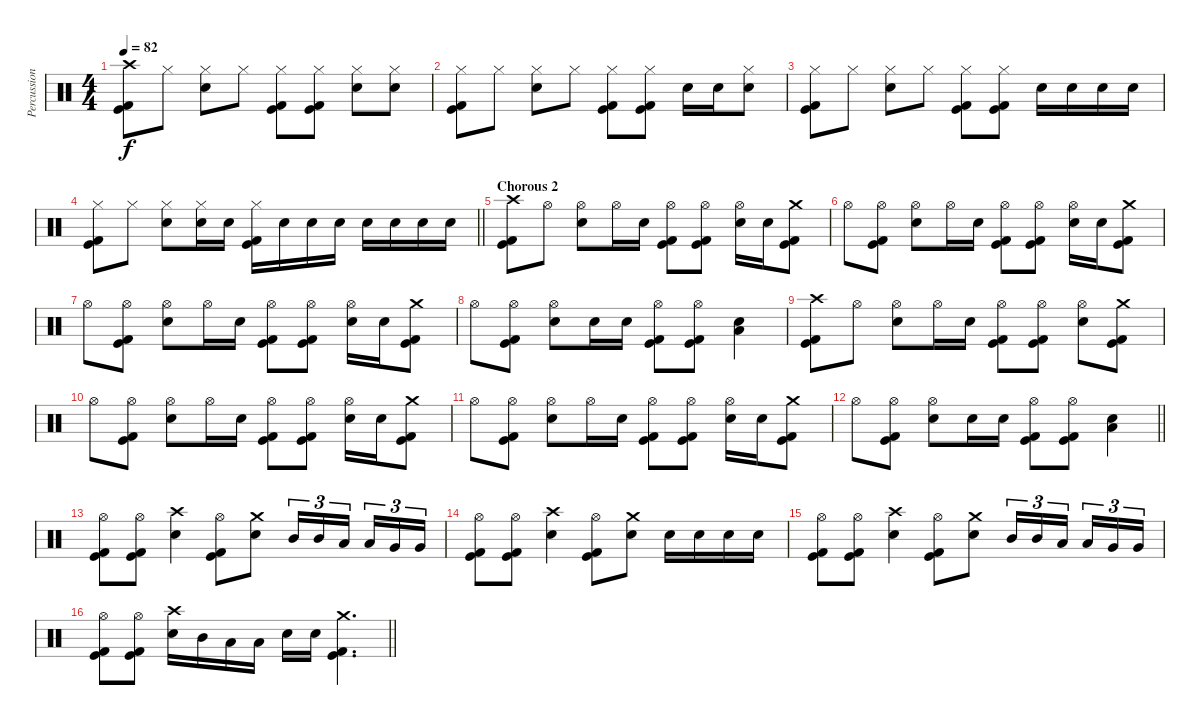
\track ("Percussion" "Percussion") {instrument percussion}
\staff {score}
\articulation defaults
\ts (4 4)
\section ("" "")
\tempo 82
\clef neutral
\ks c
("Crash high (hit)" "Kick (hit)" "Kick (hit) 2").8{dy f} "Hi-Hat (closed)".8 ("Hi-Hat (closed)" "Electric Snare (hit)").8 "Hi-Hat (closed)".8 ("Hi-Hat (closed)" "Kick (hit)" "Kick (hit) 2").8 ("Hi-Hat (closed)" "Kick (hit)" "Kick (hit) 2").8 ("Hi-Hat (closed)" "Electric Snare (hit)").8 ("Hi-Hat (closed)" "Electric Snare (hit)").8 |
("Hi-Hat (closed)" "Kick (hit)" "Kick (hit) 2").8 "Hi-Hat (closed)".8 ("Hi-Hat (closed)" "Electric Snare (hit)").8 "Hi-Hat (closed)".8 ("Hi-Hat (closed)" "Kick (hit)" "Kick (hit) 2").8 ("Hi-Hat (closed)" "Kick (hit)" "Kick (hit) 2").8 "Electric Snare (hit)".16 "Electric Snare (hit)".16 ("Hi-Hat (closed)" "Electric Snare (hit)").8 |
("Hi-Hat (closed)" "Kick (hit)" "Kick (hit) 2").8 "Hi-Hat (closed)".8 ("Hi-Hat (closed)" "Electric Snare (hit)").8 "Hi-Hat (closed)".8 ("Hi-Hat (closed)" "Kick (hit)" "Kick (hit) 2").8 ("Hi-Hat (closed)" "Kick (hit)" "Kick (hit) 2").8 "Electric Snare (hit)".16 "Electric Snare (hit)".16 "Electric Snare (hit)".16 "Electric Snare (hit)".16 |
\barLineRight lightlight
("Hi-Hat (closed)" "Kick (hit)" "Kick (hit) 2").8 "Hi-Hat (closed)".8 ("Hi-Hat (closed)" "Electric Snare (hit)").8 ("Hi-Hat (closed)" "Electric Snare (hit)").16 "Electric Snare (hit)".16 ("Hi-Hat (closed)" "Kick (hit)" "Kick (hit) 2").16 "Electric Snare (hit)".16 "Electric Snare (hit)".16 "Electric Snare (hit)".16 "Electric Snare (hit)".16 "Electric Snare (hit)".16 "Electric Snare (hit)".16 "Electric Snare (hit)".16 |
\section ("" "Chorous 2")
("Crash high (hit)" "Kick (hit)" "Kick (hit) 2").8 "Hi-Hat (open)".8 ("Hi-Hat (open)" "Electric Snare (hit)").8 "Hi-Hat (open)".16 "Electric Snare (hit)".16 ("Hi-Hat (open)" "Kick (hit)" "Kick (hit) 2").8 ("Hi-Hat (open)" "Kick (hit)" "Kick (hit) 2").8 ("Hi-Hat (open)" "Electric Snare (hit)").16 "Electric Snare (hit)".16 ("Crash medium (hit)" "Kick (hit)" "Kick (hit) 2").8 |
"Hi-Hat (open)".8 ("Hi-Hat (open)" "Kick (hit)" "Kick (hit) 2").8 ("Hi-Hat (open)" "Electric Snare (hit)").8 "Hi-Hat (open)".16 "Electric Snare (hit)".16 ("Hi-Hat (open)" "Kick (hit)" "Kick (hit) 2").8 ("Hi-Hat (open)" "Kick (hit)" "Kick (hit) 2").8 ("Hi-Hat (open)" "Electric Snare (hit)").16 "Electric Snare (hit)".16 ("Crash medium (hit)" "Kick (hit)" "Kick (hit) 2").8 |
"Hi-Hat (open)".8 ("Hi-Hat (open)" "Kick (hit)" "Kick (hit) 2").8 ("Hi-Hat (open)" "Electric Snare (hit)").8 "Hi-Hat (open)".16 "Electric Snare (hit)".16 ("Hi-Hat (open)" "Kick (hit)" "Kick (hit) 2").8 ("Hi-Hat (open)" "Kick (hit)" "Kick (hit) 2").8 ("Hi-Hat (open)" "Electric Snare (hit)").16 "Electric Snare (hit)".16 ("Crash medium (hit)" "Kick (hit)" "Kick (hit) 2").8 |
"Hi-Hat (open)".8 ("Hi-Hat (open)" "Kick (hit)" "Kick (hit) 2").8 ("Hi-Hat (open)" "Electric Snare (hit)").8 "Electric Snare (hit)".16 "Electric Snare (hit)".16 ("Hi-Hat (open)" "Kick (hit)" "Kick (hit) 2").8 ("Hi-Hat (open)" "Kick (hit)" "Kick (hit) 2").8 ("Electric Snare (hit)" "Low Floor Tom (hit)").4 |
("Crash high (hit)" "Kick (hit)" "Kick (hit) 2").8 "Hi-Hat (open)".8 ("Hi-Hat (open)" "Electric Snare (hit)").8 "Hi-Hat (open)".16 "Electric Snare (hit)".16 ("Hi-Hat (open)" "Kick (hit)" "Kick (hit) 2").8 ("Hi-Hat (open)" "Kick (hit)" "Kick (hit) 2").8 ("Hi-Hat (open)" "Electric Snare (hit)").8 ("Crash medium (hit)" "Kick (hit)" "Kick (hit) 2").8 |
"Hi-Hat (open)".8 ("Hi-Hat (open)" "Kick (hit)" "Kick (hit) 2").8 ("Hi-Hat (open)" "Electric Snare (hit)").8 "Hi-Hat (open)".16 "Electric Snare (hit)".16 ("Hi-Hat (open)" "Kick (hit)" "Kick (hit) 2").8 ("Hi-Hat (open)" "Kick (hit)" "Kick (hit) 2").8 ("Hi-Hat (open)" "Electric Snare (hit)").16 "Electric Snare (hit)".16 ("Crash medium (hit)" "Kick (hit)" "Kick (hit) 2").8 |
"Hi-Hat (open)".8 ("Hi-Hat (open)" "Kick (hit)" "Kick (hit) 2").8 ("Hi-Hat (open)" "Electric Snare (hit)").8 "Hi-Hat (open)".16 "Electric Snare (hit)".16 ("Hi-Hat (open)" "Kick (hit)" "Kick (hit) 2").8 ("Hi-Hat (open)" "Kick (hit)" "Kick (hit) 2").8 ("Hi-Hat (open)" "Electric Snare (hit)").16 "Electric Snare (hit)".16 ("Crash medium (hit)" "Kick (hit)" "Kick (hit) 2").8 |
\barLineRight lightlight "Hi-Hat (open)".8
("Hi-Hat (open)" "Kick (hit)" "Kick (hit) 2").8 ("Hi-Hat (open)" "Electric Snare (hit)").8 "Electric Snare (hit)".16 "Electric Snare (hit)".16 ("Hi-Hat (open)" "Kick (hit)" "Kick (hit) 2").8 ("Hi-Hat (open)" "Kick (hit)" "Kick (hit) 2").8 ("Electric Snare (hit)" "Low Floor Tom (hit)").4 |
\section ("" "")
("Hi-Hat (open)" "Kick (hit)" "Kick (hit) 2").8 ("Hi-Hat (open)" "Kick (hit)" "Kick (hit) 2").8 ("Crash high (hit)" "Electric Snare (hit)").4 ("Hi-Hat (open)" "Kick (hit)" "Kick (hit) 2").8 ("Crash medium (hit)" "Electric Snare (hit)").8 "Mid Tom (hit)".16{tu (3 2)} "Mid Tom (hit)".16{tu (3 2)} "Low Tom (hit)".16{tu (3 2) beam splitsecondary} "Low Tom (hit)".16{tu (3 2)} "Very Low Tom (hit)".16{tu (3 2)} "Very Low Tom (hit)".16{tu (3 2)} |
("Hi-Hat (open)" "Kick (hit)" "Kick (hit) 2").8 ("Hi-Hat (open)" "Kick (hit)" "Kick (hit) 2").8 ("Crash high (hit)" "Electric Snare (hit)").4 ("Hi-Hat (open)" "Kick (hit)" "Kick (hit) 2").8 ("Crash medium (hit)" "Electric Snare (hit)").8 "Electric Snare (hit)".16 "Electric Snare (hit)".16 "Electric Snare (hit)".16 "Electric Snare (hit)".16 |
("Hi-Hat (open)" "Kick (hit)" "Kick (hit) 2").8 ("Hi-Hat (open)" "Kick (hit)" "Kick (hit) 2").8 ("Crash high (hit)" "Electric Snare (hit)").4 ("Hi-Hat (open)" "Kick (hit)" "Kick (hit) 2").8 ("Crash medium (hit)" "Electric Snare (hit)").8 "Mid Tom (hit)".16{tu (3 2)} "Mid Tom (hit)".16{tu (3 2)} "Low Tom (hit)".16{tu (3 2) beam splitsecondary} "Low Tom (hit)".16{tu (3 2)} "Very Low Tom (hit)".16{tu (3 2)} "Very Low Tom (hit)".16{tu (3 2)} |
\barLineRight lightlight
("Hi-Hat (open)" "Kick (hit)" "Kick (hit) 2").8 ("Hi-Hat (open)" "Kick (hit)" "Kick (hit) 2").8 ("Crash high (hit)" "Electric Snare (hit)").16 "Mid Tom (hit)".16 "Low Tom (hit)".16 "Low Tom (hit)".16 "Electric Snare (hit)".16 "Electric Snare (hit)".16 ("Crash medium (hit)" "Kick (hit)" "Kick (hit) 2").4{d}
